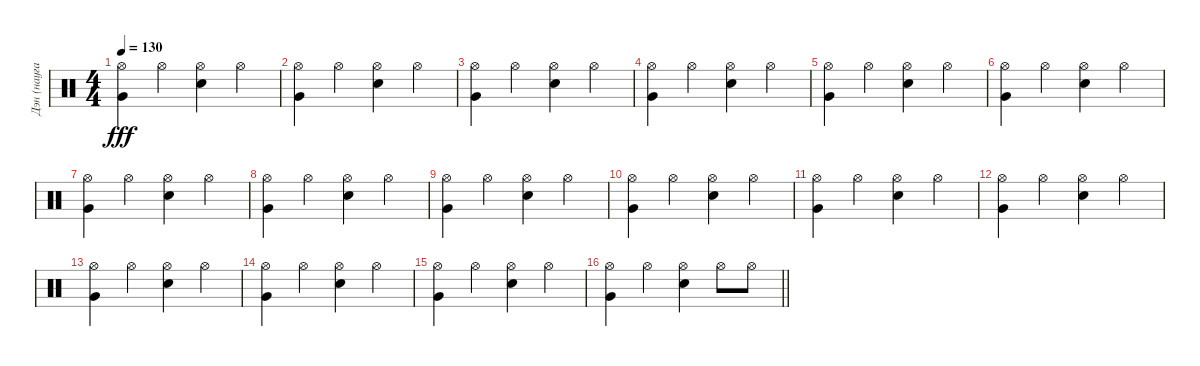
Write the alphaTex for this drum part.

\track ("Дэн (наугад))" "Дэн (науга") {instrument percussion}
\staff {score}
\articulation defaults
\ts (4 4)
\tempo 130
\clef neutral
\ks c
("Hi-Hat (open)" "Very Low Tom (hit)").4{dy fff} "Hi-Hat (open)".4 ("Hi-Hat (open)" "Snare (hit) 2").4 "Hi-Hat (open)".4 |
("Hi-Hat (open)" "Very Low Tom (hit)").4 "Hi-Hat (open)".4 ("Hi-Hat (open)" "Snare (hit) 2").4 "Hi-Hat (open)".4 |
("Hi-Hat (open)" "Very Low Tom (hit)").4 "Hi-Hat (open)".4 ("Hi-Hat (open)" "Snare (hit) 2").4 "Hi-Hat (open)".4 |
("Hi-Hat (open)" "Very Low Tom (hit)").4 "Hi-Hat (open)".4 ("Hi-Hat (open)" "Snare (hit) 2").4 "Hi-Hat (open)".4 |
("Hi-Hat (open)" "Very Low Tom (hit)").4 "Hi-Hat (open)".4 ("Hi-Hat (open)" "Snare (hit) 2").4 "Hi-Hat (open)".4 |
("Hi-Hat (open)" "Very Low Tom (hit)").4 "Hi-Hat (open)".4 ("Hi-Hat (open)" "Snare (hit) 2").4 "Hi-Hat (open)".4 |
("Hi-Hat (open)" "Very Low Tom (hit)").4 "Hi-Hat (open)".4 ("Hi-Hat (open)" "Snare (hit) 2").4 "Hi-Hat (open)".4 |
("Hi-Hat (open)" "Very Low Tom (hit)").4 "Hi-Hat (open)".4 ("Hi-Hat (open)" "Snare (hit) 2").4 "Hi-Hat (open)".4 |
("Hi-Hat (open)" "Very Low Tom (hit)").4 "Hi-Hat (open)".4 ("Hi-Hat (open)" "Snare (hit) 2").4 "Hi-Hat (open)".4 |
("Hi-Hat (open)" "Very Low Tom (hit)").4 "Hi-Hat (open)".4 ("Hi-Hat (open)" "Snare (hit) 2").4 "Hi-Hat (open)".4 |
("Hi-Hat (open)" "Very Low Tom (hit)").4 "Hi-Hat (open)".4 ("Hi-Hat (open)" "Snare (hit) 2").4 "Hi-Hat (open)".4 |
("Hi-Hat (open)" "Very Low Tom (hit)").4 "Hi-Hat (open)".4 ("Hi-Hat (open)" "Snare (hit) 2").4 "Hi-Hat (open)".4 |
("Hi-Hat (open)" "Very Low Tom (hit)").4 "Hi-Hat (open)".4 ("Hi-Hat (open)" "Snare (hit) 2").4 "Hi-Hat (open)".4 |
("Hi-Hat (open)" "Very Low Tom (hit)").4 "Hi-Hat (open)".4 ("Hi-Hat (open)" "Snare (hit) 2").4 "Hi-Hat (open)".4 |
("Hi-Hat (open)" "Very Low Tom (hit)").4 "Hi-Hat (open)".4 ("Hi-Hat (open)" "Snare (hit) 2").4 "Hi-Hat (open)".4 |
\barLineRight lightlight
("Hi-Hat (open)" "Very Low Tom (hit)").4 "Hi-Hat (open)".4 ("Hi-Hat (open)" "Snare (hit) 2").4 "Hi-Hat (open)".8 "Hi-Hat (open)".8
